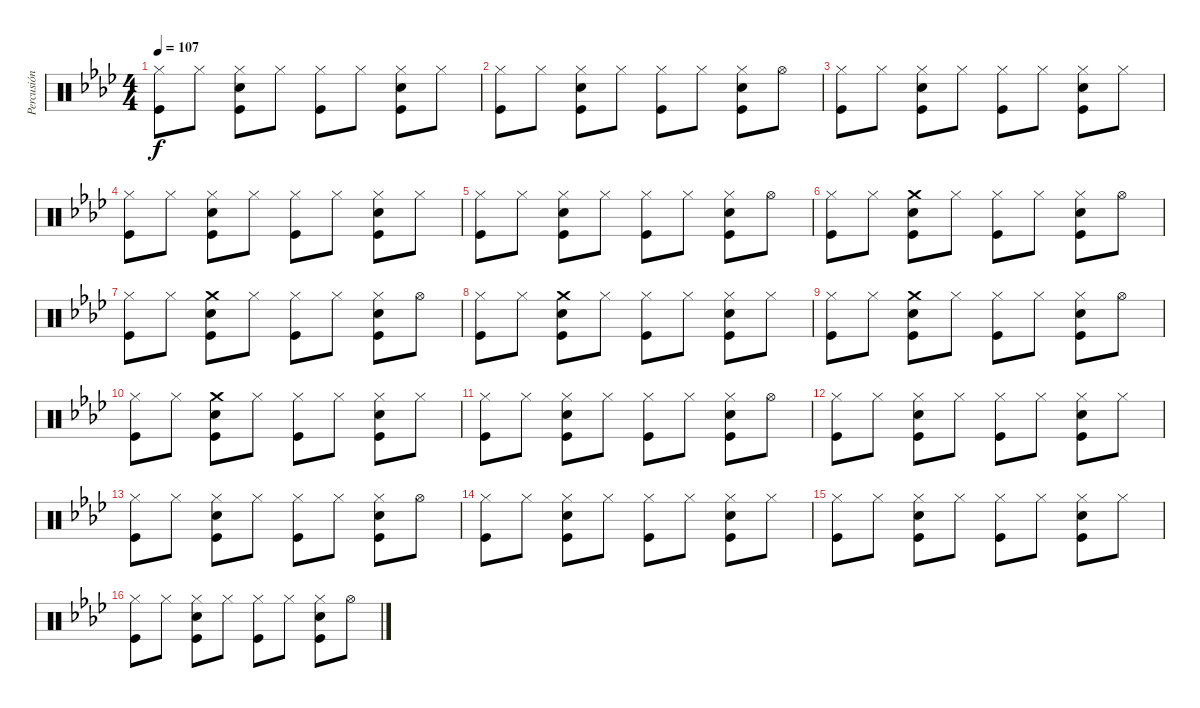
\track ("Percusión" "Percusión") {instrument percussion}
\staff {score}
\articulation defaults
\ts (4 4)
\tempo 107
\clef neutral
\ks ab
("Hi-Hat (closed)" "Kick (hit)").8{dy f} "Hi-Hat (closed)".8 ("Hi-Hat (closed)" "Snare (hit) 2" "Kick (hit)").8 "Hi-Hat (closed)".8 ("Hi-Hat (closed)" "Kick (hit)").8 "Hi-Hat (closed)".8 ("Hi-Hat (closed)" "Snare (hit) 2" "Kick (hit)").8 "Hi-Hat (closed)".8 |
("Hi-Hat (closed)" "Kick (hit)").8 "Hi-Hat (closed)".8 ("Hi-Hat (closed)" "Snare (hit) 2" "Kick (hit)").8 "Hi-Hat (closed)".8 ("Hi-Hat (closed)" "Kick (hit)").8 "Hi-Hat (closed)".8 ("Hi-Hat (closed)" "Snare (hit) 2" "Kick (hit)").8 "Hi-Hat (open)".8 |
("Hi-Hat (closed)" "Kick (hit)").8 "Hi-Hat (closed)".8 ("Hi-Hat (closed)" "Snare (hit) 2" "Kick (hit)").8 "Hi-Hat (closed)".8 ("Hi-Hat (closed)" "Kick (hit)").8 "Hi-Hat (closed)".8 ("Hi-Hat (closed)" "Snare (hit) 2" "Kick (hit)").8 "Hi-Hat (closed)".8 |
("Hi-Hat (closed)" "Kick (hit)").8 "Hi-Hat (closed)".8 ("Hi-Hat (closed)" "Snare (hit) 2" "Kick (hit)").8 "Hi-Hat (closed)".8 ("Hi-Hat (closed)" "Kick (hit)").8 "Hi-Hat (closed)".8 ("Hi-Hat (closed)" "Snare (hit) 2" "Kick (hit)").8 "Hi-Hat (closed)".8 |
("Hi-Hat (closed)" "Kick (hit)").8 "Hi-Hat (closed)".8 ("Hi-Hat (closed)" "Snare (hit) 2" "Kick (hit)").8 "Hi-Hat (closed)".8 ("Hi-Hat (closed)" "Kick (hit)").8 "Hi-Hat (closed)".8 ("Hi-Hat (closed)" "Snare (hit) 2" "Kick (hit)").8 "Hi-Hat (open)".8 |
("Hi-Hat (closed)" "Kick (hit)").8 "Hi-Hat (closed)".8 ("Crash medium (hit)" "Snare (hit) 2" "Kick (hit)").8 "Hi-Hat (closed)".8 ("Hi-Hat (closed)" "Kick (hit)").8 "Hi-Hat (closed)".8 ("Hi-Hat (closed)" "Snare (hit) 2" "Kick (hit)").8 "Hi-Hat (open)".8 |
("Hi-Hat (closed)" "Kick (hit)").8 "Hi-Hat (closed)".8 ("Crash medium (hit)" "Snare (hit) 2" "Kick (hit)").8 "Hi-Hat (closed)".8 ("Hi-Hat (closed)" "Kick (hit)").8 "Hi-Hat (closed)".8 ("Hi-Hat (closed)" "Snare (hit) 2" "Kick (hit)").8 "Hi-Hat (open)".8 |
("Hi-Hat (closed)" "Kick (hit)").8 "Hi-Hat (closed)".8 ("Crash medium (hit)" "Snare (hit) 2" "Kick (hit)").8 "Hi-Hat (closed)".8 ("Hi-Hat (closed)" "Kick (hit)").8 "Hi-Hat (closed)".8 ("Hi-Hat (closed)" "Snare (hit) 2" "Kick (hit)").8 "Hi-Hat (closed)".8 |
("Hi-Hat (closed)" "Kick (hit)").8 "Hi-Hat (closed)".8 ("Crash medium (hit)" "Snare (hit) 2" "Kick (hit)").8 "Hi-Hat (closed)".8 ("Hi-Hat (closed)" "Kick (hit)").8 "Hi-Hat (closed)".8 ("Hi-Hat (closed)" "Snare (hit) 2" "Kick (hit)").8 "Hi-Hat (open)".8 |
("Hi-Hat (closed)" "Kick (hit)").8 "Hi-Hat (closed)".8 ("Crash medium (hit)" "Snare (hit) 2" "Kick (hit)").8 "Hi-Hat (closed)".8 ("Hi-Hat (closed)" "Kick (hit)").8 "Hi-Hat (closed)".8 ("Hi-Hat (closed)" "Snare (hit) 2" "Kick (hit)").8 "Hi-Hat (closed)".8 |
("Hi-Hat (closed)" "Kick (hit)").8 "Hi-Hat (closed)".8 ("Hi-Hat (closed)" "Snare (hit) 2" "Kick (hit)").8 "Hi-Hat (closed)".8 ("Hi-Hat (closed)" "Kick (hit)").8 "Hi-Hat (closed)".8 ("Hi-Hat (closed)" "Snare (hit) 2" "Kick (hit)").8 "Hi-Hat (open)".8 |
("Hi-Hat (closed)" "Kick (hit)").8 "Hi-Hat (closed)".8 ("Hi-Hat (closed)" "Snare (hit) 2" "Kick (hit)").8 "Hi-Hat (closed)".8 ("Hi-Hat (closed)" "Kick (hit)").8 "Hi-Hat (closed)".8 ("Hi-Hat (closed)" "Snare (hit) 2" "Kick (hit)").8 "Hi-Hat (closed)".8 |
("Hi-Hat (closed)" "Kick (hit)").8 "Hi-Hat (closed)".8 ("Hi-Hat (closed)" "Snare (hit) 2" "Kick (hit)").8 "Hi-Hat (closed)".8 ("Hi-Hat (closed)" "Kick (hit)").8 "Hi-Hat (closed)".8 ("Hi-Hat (closed)" "Snare (hit) 2" "Kick (hit)").8 "Hi-Hat (open)".8 |
("Hi-Hat (closed)" "Kick (hit)").8 "Hi-Hat (closed)".8 ("Hi-Hat (closed)" "Snare (hit) 2" "Kick (hit)").8 "Hi-Hat (closed)".8 ("Hi-Hat (closed)" "Kick (hit)").8 "Hi-Hat (closed)".8 ("Hi-Hat (closed)" "Snare (hit) 2" "Kick (hit)").8 "Hi-Hat (closed)".8 |
("Hi-Hat (closed)" "Kick (hit)").8 "Hi-Hat (closed)".8 ("Hi-Hat (closed)" "Snare (hit) 2" "Kick (hit)").8 "Hi-Hat (closed)".8 ("Hi-Hat (closed)" "Kick (hit)").8 "Hi-Hat (closed)".8 ("Hi-Hat (closed)" "Snare (hit) 2" "Kick (hit)").8 "Hi-Hat (closed)".8 |
("Hi-Hat (closed)" "Kick (hit)").8 "Hi-Hat (closed)".8 ("Hi-Hat (closed)" "Snare (hit) 2" "Kick (hit)").8 "Hi-Hat (closed)".8 ("Hi-Hat (closed)" "Kick (hit)").8 "Hi-Hat (closed)".8 ("Hi-Hat (closed)" "Snare (hit) 2" "Kick (hit)").8 "Hi-Hat (open)".8
